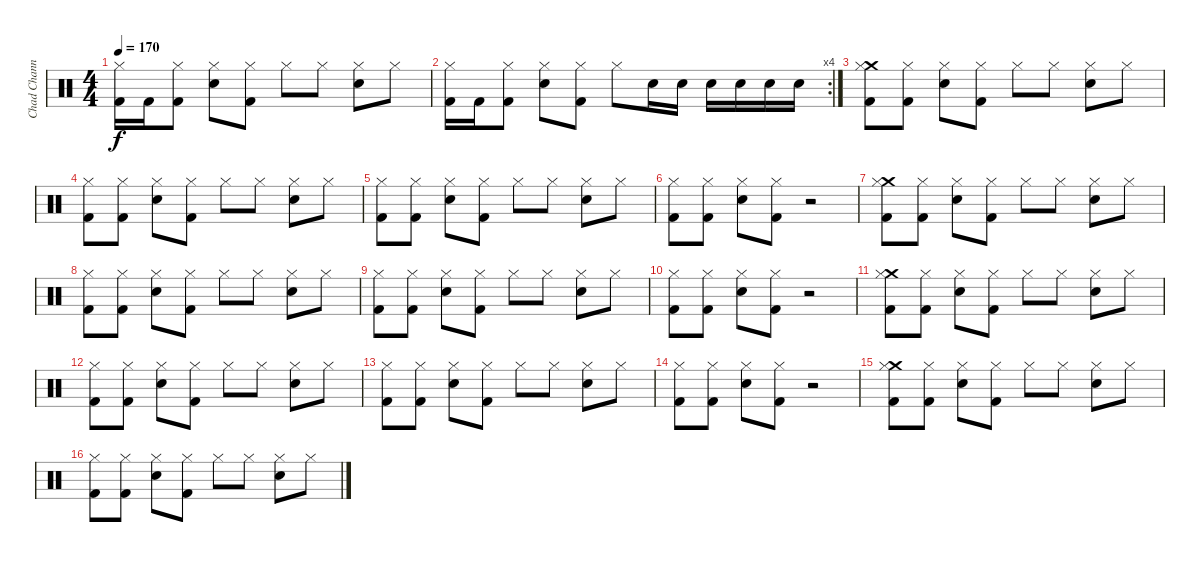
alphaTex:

\track ("Chad Channing" "Chad Chann") {instrument percussion}
\staff {score}
\articulation defaults
\ts (4 4)
\tempo 170
\clef neutral
\ks c
("Hi-Hat (closed)" "Kick (hit) 2").16{dy f} "Kick (hit) 2".16 ("Hi-Hat (closed)" "Kick (hit) 2").8 ("Hi-Hat (closed)" "Snare (hit) 2").8 ("Hi-Hat (closed)" "Kick (hit) 2").8 "Hi-Hat (closed)".8 "Hi-Hat (closed)".8 ("Hi-Hat (closed)" "Snare (hit) 2").8 "Hi-Hat (closed)".8 |
\rc 4
("Hi-Hat (closed)" "Kick (hit) 2").16 "Kick (hit) 2".16 ("Hi-Hat (closed)" "Kick (hit) 2").8 ("Hi-Hat (closed)" "Snare (hit) 2").8 ("Hi-Hat (closed)" "Kick (hit) 2").8 "Hi-Hat (closed)".8 "Snare (hit) 2".16 "Snare (hit) 2".16 "Snare (hit) 2".16 "Snare (hit) 2".16 "Snare (hit) 2".16 "Snare (hit) 2".16 |
("Crash medium (hit)" "Hi-Hat (closed)" "Kick (hit) 2").8 ("Hi-Hat (closed)" "Kick (hit) 2").8 ("Hi-Hat (closed)" "Snare (hit) 2").8 ("Hi-Hat (closed)" "Kick (hit) 2").8 "Hi-Hat (closed)".8 "Hi-Hat (closed)".8 ("Hi-Hat (closed)" "Snare (hit) 2").8 "Hi-Hat (closed)".8 |
("Hi-Hat (closed)" "Kick (hit) 2").8 ("Hi-Hat (closed)" "Kick (hit) 2").8 ("Hi-Hat (closed)" "Snare (hit) 2").8 ("Hi-Hat (closed)" "Kick (hit) 2").8 "Hi-Hat (closed)".8 "Hi-Hat (closed)".8 ("Hi-Hat (closed)" "Snare (hit) 2").8 "Hi-Hat (closed)".8 |
("Hi-Hat (closed)" "Kick (hit) 2").8 ("Hi-Hat (closed)" "Kick (hit) 2").8 ("Hi-Hat (closed)" "Snare (hit) 2").8 ("Hi-Hat (closed)" "Kick (hit) 2").8 "Hi-Hat (closed)".8 "Hi-Hat (closed)".8 ("Hi-Hat (closed)" "Snare (hit) 2").8 "Hi-Hat (closed)".8 |
("Hi-Hat (closed)" "Kick (hit) 2").8 ("Hi-Hat (closed)" "Kick (hit) 2").8 ("Hi-Hat (closed)" "Snare (hit) 2").8 ("Hi-Hat (closed)" "Kick (hit) 2").8 r.2 |
("Crash medium (hit)" "Hi-Hat (closed)" "Kick (hit) 2").8 ("Hi-Hat (closed)" "Kick (hit) 2").8 ("Hi-Hat (closed)" "Snare (hit) 2").8 ("Hi-Hat (closed)" "Kick (hit) 2").8 "Hi-Hat (closed)".8 "Hi-Hat (closed)".8 ("Hi-Hat (closed)" "Snare (hit) 2").8 "Hi-Hat (closed)".8 |
("Hi-Hat (closed)" "Kick (hit) 2").8 ("Hi-Hat (closed)" "Kick (hit) 2").8 ("Hi-Hat (closed)" "Snare (hit) 2").8 ("Hi-Hat (closed)" "Kick (hit) 2").8 "Hi-Hat (closed)".8 "Hi-Hat (closed)".8 ("Hi-Hat (closed)" "Snare (hit) 2").8 "Hi-Hat (closed)".8 |
("Hi-Hat (closed)" "Kick (hit) 2").8 ("Hi-Hat (closed)" "Kick (hit) 2").8 ("Hi-Hat (closed)" "Snare (hit) 2").8 ("Hi-Hat (closed)" "Kick (hit) 2").8 "Hi-Hat (closed)".8 "Hi-Hat (closed)".8 ("Hi-Hat (closed)" "Snare (hit) 2").8 "Hi-Hat (closed)".8 |
("Hi-Hat (closed)" "Kick (hit) 2").8 ("Hi-Hat (closed)" "Kick (hit) 2").8 ("Hi-Hat (closed)" "Snare (hit) 2").8 ("Hi-Hat (closed)" "Kick (hit) 2").8 r.2 |
("Crash medium (hit)" "Hi-Hat (closed)" "Kick (hit) 2").8 ("Hi-Hat (closed)" "Kick (hit) 2").8 ("Hi-Hat (closed)" "Snare (hit) 2").8 ("Hi-Hat (closed)" "Kick (hit) 2").8 "Hi-Hat (closed)".8 "Hi-Hat (closed)".8 ("Hi-Hat (closed)" "Snare (hit) 2").8 "Hi-Hat (closed)".8 |
("Hi-Hat (closed)" "Kick (hit) 2").8 ("Hi-Hat (closed)" "Kick (hit) 2").8 ("Hi-Hat (closed)" "Snare (hit) 2").8 ("Hi-Hat (closed)" "Kick (hit) 2").8 "Hi-Hat (closed)".8 "Hi-Hat (closed)".8 ("Hi-Hat (closed)" "Snare (hit) 2").8 "Hi-Hat (closed)".8 |
("Hi-Hat (closed)" "Kick (hit) 2").8 ("Hi-Hat (closed)" "Kick (hit) 2").8 ("Hi-Hat (closed)" "Snare (hit) 2").8 ("Hi-Hat (closed)" "Kick (hit) 2").8 "Hi-Hat (closed)".8 "Hi-Hat (closed)".8 ("Hi-Hat (closed)" "Snare (hit) 2").8 "Hi-Hat (closed)".8 |
("Hi-Hat (closed)" "Kick (hit) 2").8 ("Hi-Hat (closed)" "Kick (hit) 2").8 ("Hi-Hat (closed)" "Snare (hit) 2").8 ("Hi-Hat (closed)" "Kick (hit) 2").8 r.2 |
("Crash medium (hit)" "Hi-Hat (closed)" "Kick (hit) 2").8 ("Hi-Hat (closed)" "Kick (hit) 2").8 ("Hi-Hat (closed)" "Snare (hit) 2").8 ("Hi-Hat (closed)" "Kick (hit) 2").8 "Hi-Hat (closed)".8 "Hi-Hat (closed)".8 ("Hi-Hat (closed)" "Snare (hit) 2").8 "Hi-Hat (closed)".8 |
("Hi-Hat (closed)" "Kick (hit) 2").8 ("Hi-Hat (closed)" "Kick (hit) 2").8 ("Hi-Hat (closed)" "Snare (hit) 2").8 ("Hi-Hat (closed)" "Kick (hit) 2").8 "Hi-Hat (closed)".8 "Hi-Hat (closed)".8 ("Hi-Hat (closed)" "Snare (hit) 2").8 "Hi-Hat (closed)".8
